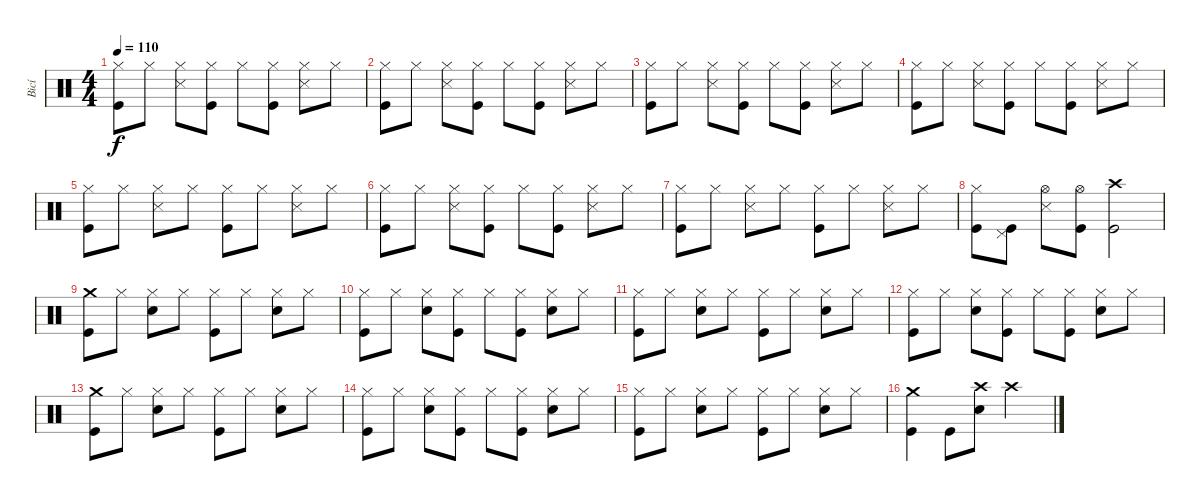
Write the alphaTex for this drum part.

\track ("Bicí" "Bicí") {instrument percussion}
\staff
\articulation defaults
\ts (4 4)
\tempo 110
\clef neutral
\ks c
("Hi-Hat (closed)" "Kick (hit)").8{dy f} "Hi-Hat (closed)".8 ("Hi-Hat (closed)" "Snare (side stick) 3").8 ("Hi-Hat (closed)" "Kick (hit)").8 "Hi-Hat (closed)".8 ("Hi-Hat (closed)" "Kick (hit)").8 ("Hi-Hat (closed)" "Snare (side stick) 3").8 "Hi-Hat (closed)".8 |
("Hi-Hat (closed)" "Kick (hit)").8 "Hi-Hat (closed)".8 ("Hi-Hat (closed)" "Snare (side stick) 3").8 ("Hi-Hat (closed)" "Kick (hit)").8 "Hi-Hat (closed)".8 ("Hi-Hat (closed)" "Kick (hit)").8 ("Hi-Hat (closed)" "Snare (side stick) 3").8 "Hi-Hat (closed)".8 |
("Hi-Hat (closed)" "Kick (hit)").8 "Hi-Hat (closed)".8 ("Hi-Hat (closed)" "Snare (side stick) 3").8 ("Hi-Hat (closed)" "Kick (hit)").8 "Hi-Hat (closed)".8 ("Hi-Hat (closed)" "Kick (hit)").8 ("Hi-Hat (closed)" "Snare (side stick) 3").8 "Hi-Hat (closed)".8 |
("Hi-Hat (closed)" "Kick (hit)").8 "Hi-Hat (closed)".8 ("Hi-Hat (closed)" "Snare (side stick) 3").8 ("Hi-Hat (closed)" "Kick (hit)").8 "Hi-Hat (closed)".8 ("Hi-Hat (closed)" "Kick (hit)").8 ("Hi-Hat (closed)" "Snare (side stick) 3").8 "Hi-Hat (closed)".8 |
("Hi-Hat (closed)" "Kick (hit)").8 "Hi-Hat (closed)".8 ("Hi-Hat (closed)" "Snare (side stick) 3").8 "Hi-Hat (closed)".8 ("Hi-Hat (closed)" "Kick (hit)").8 "Hi-Hat (closed)".8 ("Hi-Hat (closed)" "Snare (side stick) 3").8 "Hi-Hat (closed)".8 |
("Hi-Hat (closed)" "Kick (hit)").8 "Hi-Hat (closed)".8 ("Hi-Hat (closed)" "Snare (side stick) 3").8 ("Hi-Hat (closed)" "Kick (hit)").8 "Hi-Hat (closed)".8 ("Hi-Hat (closed)" "Kick (hit)").8 ("Hi-Hat (closed)" "Snare (side stick) 3").8 "Hi-Hat (closed)".8 |
("Hi-Hat (closed)" "Kick (hit)").8 "Hi-Hat (closed)".8 ("Hi-Hat (closed)" "Snare (side stick) 3").8 "Hi-Hat (closed)".8 ("Hi-Hat (closed)" "Kick (hit)").8 "Hi-Hat (closed)".8 ("Hi-Hat (closed)" "Snare (side stick) 3").8 "Hi-Hat (closed)".8 |
("Hi-Hat (closed)" "Kick (hit)").8 ("Pedal Hi-Hat (hit)" "Kick (hit)").8 ("Hi-Hat (open)" "Snare (side stick) 3").8 ("Hi-Hat (open)" "Kick (hit)").8 ("Crash high (hit)" "Kick (hit)").2 |
("Crash medium (hit)" "Kick (hit)").8 "Hi-Hat (closed)".8 ("Hi-Hat (closed)" "Snare (hit) 2").8 "Hi-Hat (closed)".8 ("Hi-Hat (closed)" "Kick (hit)").8 "Hi-Hat (closed)".8 ("Hi-Hat (closed)" "Snare (hit) 2").8 "Hi-Hat (closed)".8 |
("Hi-Hat (closed)" "Kick (hit)").8 "Hi-Hat (closed)".8 ("Hi-Hat (closed)" "Snare (hit) 2").8 ("Hi-Hat (closed)" "Kick (hit)").8 "Hi-Hat (closed)".8 ("Hi-Hat (closed)" "Kick (hit)").8 ("Hi-Hat (closed)" "Snare (hit) 2").8 "Hi-Hat (closed)".8 |
("Hi-Hat (closed)" "Kick (hit)").8 "Hi-Hat (closed)".8 ("Hi-Hat (closed)" "Snare (hit) 2").8 "Hi-Hat (closed)".8 ("Hi-Hat (closed)" "Kick (hit)").8 "Hi-Hat (closed)".8 ("Hi-Hat (closed)" "Snare (hit) 2").8 "Hi-Hat (closed)".8 |
("Hi-Hat (closed)" "Kick (hit)").8 "Hi-Hat (closed)".8 ("Hi-Hat (closed)" "Snare (hit) 2").8 ("Hi-Hat (closed)" "Kick (hit)").8 "Hi-Hat (closed)".8 ("Hi-Hat (closed)" "Kick (hit)").8 ("Hi-Hat (closed)" "Snare (hit) 2").8 "Hi-Hat (closed)".8 |
("Crash medium (hit)" "Kick (hit)").8 "Hi-Hat (closed)".8 ("Hi-Hat (closed)" "Snare (hit) 2").8 "Hi-Hat (closed)".8 ("Hi-Hat (closed)" "Kick (hit)").8 "Hi-Hat (closed)".8 ("Hi-Hat (closed)" "Snare (hit) 2").8 "Hi-Hat (closed)".8 |
("Hi-Hat (closed)" "Kick (hit)").8 "Hi-Hat (closed)".8 ("Hi-Hat (closed)" "Snare (hit) 2").8 ("Hi-Hat (closed)" "Kick (hit)").8 "Hi-Hat (closed)".8 ("Hi-Hat (closed)" "Kick (hit)").8 ("Hi-Hat (closed)" "Snare (hit) 2").8 "Hi-Hat (closed)".8 |
("Hi-Hat (closed)" "Kick (hit)").8 "Hi-Hat (closed)".8 ("Hi-Hat (closed)" "Snare (hit) 2").8 "Hi-Hat (closed)".8 ("Hi-Hat (closed)" "Kick (hit)").8 "Hi-Hat (closed)".8 ("Hi-Hat (closed)" "Snare (hit) 2").8 "Hi-Hat (closed)".8 |
("Crash medium (hit)" "Kick (hit)").4 "Kick (hit)".8 ("Crash high (hit)" "Snare (hit) 2").8 "Crash high (hit)".2
